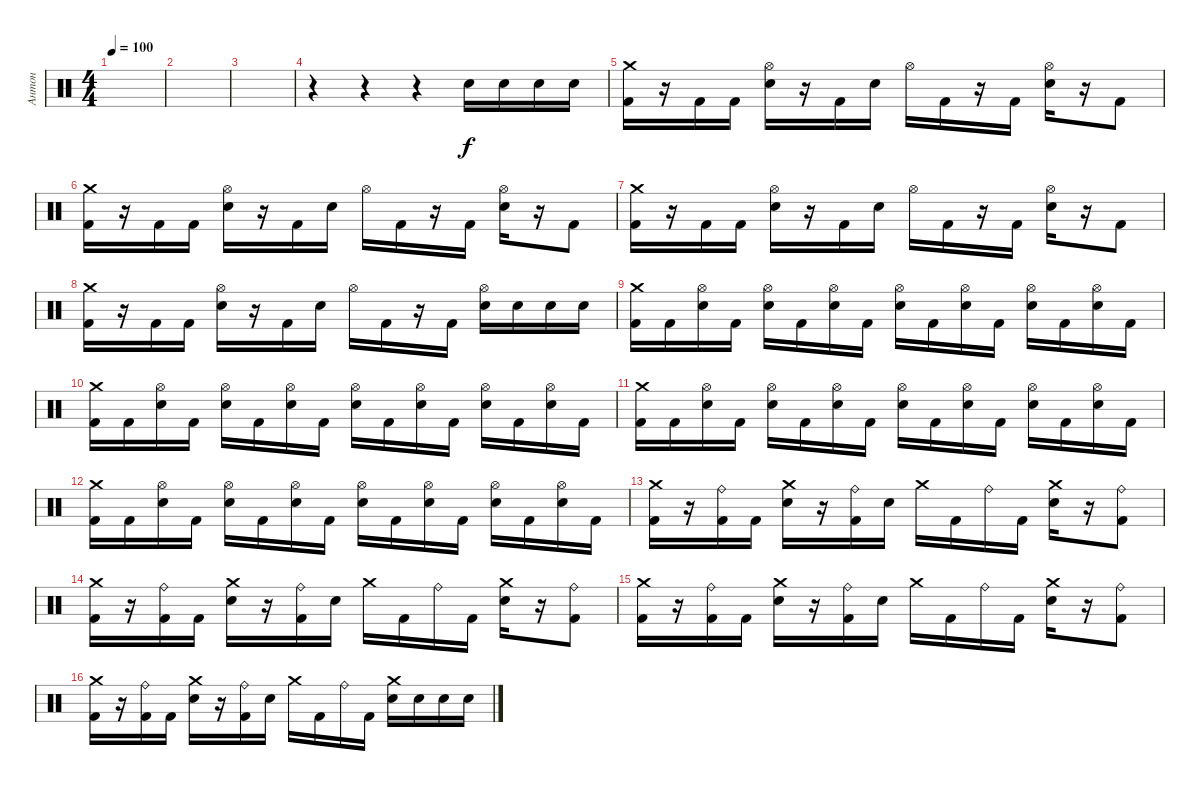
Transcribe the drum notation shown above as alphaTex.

\track ("Антон" "Антон") {instrument percussion}
\staff {score}
\articulation defaults
\ts (4 4)
\tempo 100
\clef neutral
\ks c
|
|
|
r.4 r.4 r.4 "Electric Snare (hit)".16 "Electric Snare (hit)".16 "Electric Snare (hit)".16 "Electric Snare (hit)".16 |
("Crash medium (hit)" "Kick (hit) 2").16 r.16 "Kick (hit) 2".16 "Kick (hit) 2".16 ("Hi-Hat (open)" "Electric Snare (hit)").16 r.16 "Kick (hit) 2".16 "Electric Snare (hit)".16 "Hi-Hat (open)".16 "Kick (hit) 2".16 r.16 "Kick (hit) 2".16 ("Hi-Hat (open)" "Electric Snare (hit)").16 r.16 "Kick (hit) 2".8 |
("Crash medium (hit)" "Kick (hit) 2").16 r.16 "Kick (hit) 2".16 "Kick (hit) 2".16 ("Hi-Hat (open)" "Electric Snare (hit)").16 r.16 "Kick (hit) 2".16 "Electric Snare (hit)".16 "Hi-Hat (open)".16 "Kick (hit) 2".16 r.16 "Kick (hit) 2".16 ("Hi-Hat (open)" "Electric Snare (hit)").16 r.16 "Kick (hit) 2".8 |
("Crash medium (hit)" "Kick (hit) 2").16 r.16 "Kick (hit) 2".16 "Kick (hit) 2".16 ("Hi-Hat (open)" "Electric Snare (hit)").16 r.16 "Kick (hit) 2".16 "Electric Snare (hit)".16 "Hi-Hat (open)".16 "Kick (hit) 2".16 r.16 "Kick (hit) 2".16 ("Hi-Hat (open)" "Electric Snare (hit)").16 r.16 "Kick (hit) 2".8 |
("Crash medium (hit)" "Kick (hit) 2").16 r.16 "Kick (hit) 2".16 "Kick (hit) 2".16 ("Hi-Hat (open)" "Electric Snare (hit)").16 r.16 "Kick (hit) 2".16 "Electric Snare (hit)".16 "Hi-Hat (open)".16 "Kick (hit) 2".16 r.16 "Kick (hit) 2".16 ("Hi-Hat (open)" "Electric Snare (hit)").16 "Electric Snare (hit)".16 "Electric Snare (hit)".16 "Electric Snare (hit)".16 |
("Crash medium (hit)" "Kick (hit) 2").16 "Kick (hit) 2".16 ("Hi-Hat (open)" "Electric Snare (hit)").16 "Kick (hit) 2".16 ("Hi-Hat (open)" "Electric Snare (hit)").16 "Kick (hit) 2".16 ("Hi-Hat (open)" "Electric Snare (hit)").16 "Kick (hit) 2".16 ("Hi-Hat (open)" "Electric Snare (hit)").16 "Kick (hit) 2".16 ("Hi-Hat (open)" "Electric Snare (hit)").16 "Kick (hit) 2".16 ("Hi-Hat (open)" "Electric Snare (hit)").16 "Kick (hit) 2".16 ("Hi-Hat (open)" "Electric Snare (hit)").16 "Kick (hit) 2".16 |
("Crash medium (hit)" "Kick (hit) 2").16 "Kick (hit) 2".16 ("Hi-Hat (open)" "Electric Snare (hit)").16 "Kick (hit) 2".16 ("Hi-Hat (open)" "Electric Snare (hit)").16 "Kick (hit) 2".16 ("Hi-Hat (open)" "Electric Snare (hit)").16 "Kick (hit) 2".16 ("Hi-Hat (open)" "Electric Snare (hit)").16 "Kick (hit) 2".16 ("Hi-Hat (open)" "Electric Snare (hit)").16 "Kick (hit) 2".16 ("Hi-Hat (open)" "Electric Snare (hit)").16 "Kick (hit) 2".16 ("Hi-Hat (open)" "Electric Snare (hit)").16 "Kick (hit) 2".16 |
("Crash medium (hit)" "Kick (hit) 2").16 "Kick (hit) 2".16 ("Hi-Hat (open)" "Electric Snare (hit)").16 "Kick (hit) 2".16 ("Hi-Hat (open)" "Electric Snare (hit)").16 "Kick (hit) 2".16 ("Hi-Hat (open)" "Electric Snare (hit)").16 "Kick (hit) 2".16 ("Hi-Hat (open)" "Electric Snare (hit)").16 "Kick (hit) 2".16 ("Hi-Hat (open)" "Electric Snare (hit)").16 "Kick (hit) 2".16 ("Hi-Hat (open)" "Electric Snare (hit)").16 "Kick (hit) 2".16 ("Hi-Hat (open)" "Electric Snare (hit)").16 "Kick (hit) 2".16 |
("Crash medium (hit)" "Kick (hit) 2").16 "Kick (hit) 2".16 ("Hi-Hat (open)" "Electric Snare (hit)").16 "Kick (hit) 2".16 ("Hi-Hat (open)" "Electric Snare (hit)").16 "Kick (hit) 2".16 ("Hi-Hat (open)" "Electric Snare (hit)").16 "Kick (hit) 2".16 ("Hi-Hat (open)" "Electric Snare (hit)").16 "Kick (hit) 2".16 ("Hi-Hat (open)" "Electric Snare (hit)").16 "Kick (hit) 2".16 ("Hi-Hat (open)" "Electric Snare (hit)").16 "Kick (hit) 2".16 ("Hi-Hat (open)" "Electric Snare (hit)").16 "Kick (hit) 2".16 |
("Crash medium (hit)" "Kick (hit) 2").16 r.16 ("Ride (bell)" "Kick (hit) 2").16 "Kick (hit) 2".16 ("Crash medium (hit)" "Electric Snare (hit)").16 r.16 ("Ride (bell)" "Kick (hit) 2").16 "Electric Snare (hit)".16 "Crash medium (hit)".16 "Kick (hit) 2".16 "Ride (bell)".16 "Kick (hit) 2".16 ("Crash medium (hit)" "Electric Snare (hit)").16 r.16 ("Ride (bell)" "Kick (hit) 2").8 |
("Crash medium (hit)" "Kick (hit) 2").16 r.16 ("Ride (bell)" "Kick (hit) 2").16 "Kick (hit) 2".16 ("Crash medium (hit)" "Electric Snare (hit)").16 r.16 ("Ride (bell)" "Kick (hit) 2").16 "Electric Snare (hit)".16 "Crash medium (hit)".16 "Kick (hit) 2".16 "Ride (bell)".16 "Kick (hit) 2".16 ("Crash medium (hit)" "Electric Snare (hit)").16 r.16 ("Ride (bell)" "Kick (hit) 2").8 |
("Crash medium (hit)" "Kick (hit) 2").16 r.16 ("Ride (bell)" "Kick (hit) 2").16 "Kick (hit) 2".16 ("Crash medium (hit)" "Electric Snare (hit)").16 r.16 ("Ride (bell)" "Kick (hit) 2").16 "Electric Snare (hit)".16 "Crash medium (hit)".16 "Kick (hit) 2".16 "Ride (bell)".16 "Kick (hit) 2".16 ("Crash medium (hit)" "Electric Snare (hit)").16 r.16 ("Ride (bell)" "Kick (hit) 2").8 |
("Crash medium (hit)" "Kick (hit) 2").16 r.16 ("Ride (bell)" "Kick (hit) 2").16 "Kick (hit) 2".16 ("Crash medium (hit)" "Electric Snare (hit)").16 r.16 ("Ride (bell)" "Kick (hit) 2").16 "Electric Snare (hit)".16 "Crash medium (hit)".16 "Kick (hit) 2".16 "Ride (bell)".16 "Kick (hit) 2".16 ("Crash medium (hit)" "Electric Snare (hit)").16 "Electric Snare (hit)".16 "Electric Snare (hit)".16 "Electric Snare (hit)".16
